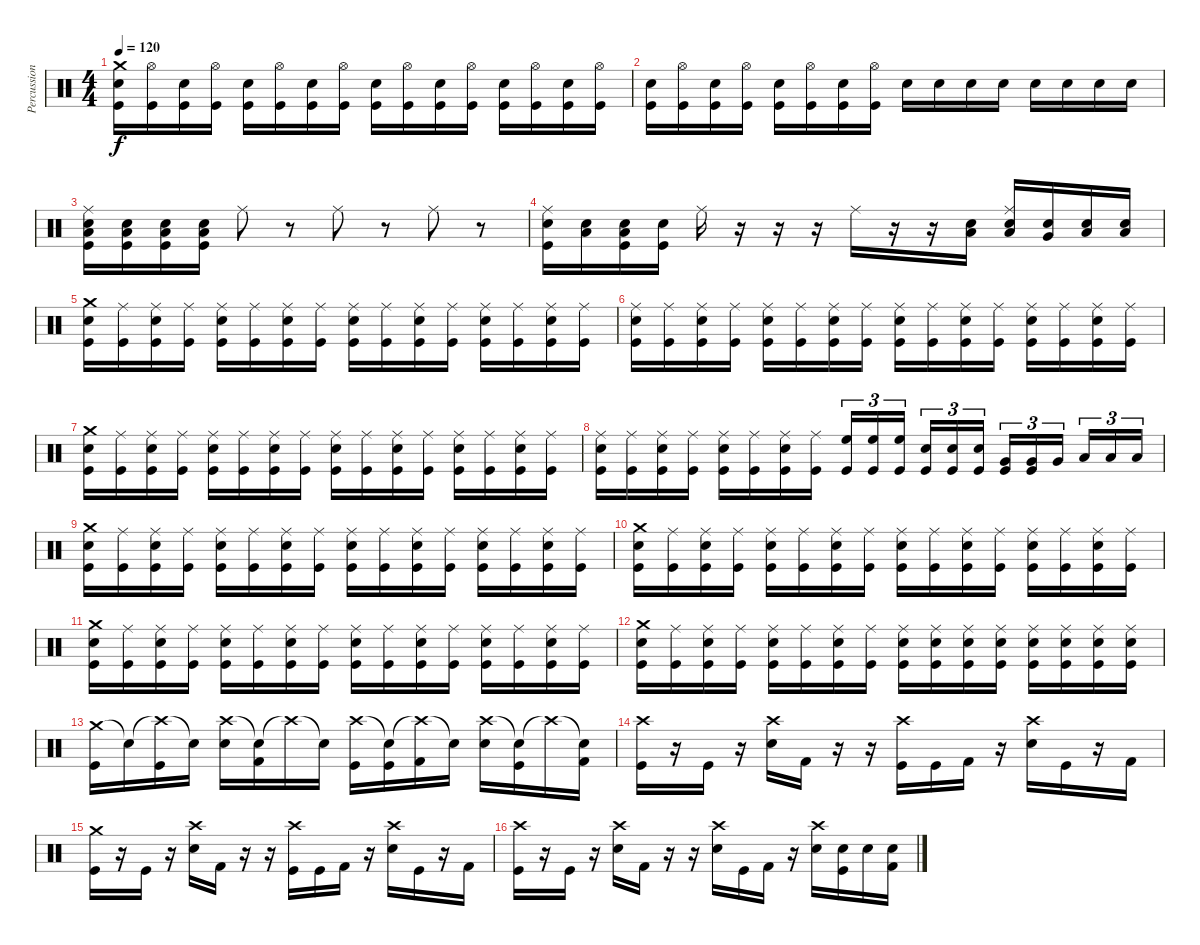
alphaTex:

\track ("Percussions" "Percussion") {instrument percussion}
\staff {score}
\articulation defaults
\ts (4 4)
\tempo 120
\clef neutral
\ks c
("Crash medium (hit)" "Electric Snare (hit)" "Kick (hit)").16{dy f} ("Hi-Hat (open)" "Kick (hit)").16 ("Electric Snare (hit)" "Kick (hit)").16 ("Hi-Hat (open)" "Kick (hit)").16 ("Electric Snare (hit)" "Kick (hit)").16 ("Hi-Hat (open)" "Kick (hit)").16 ("Electric Snare (hit)" "Kick (hit)").16 ("Hi-Hat (open)" "Kick (hit)").16 ("Electric Snare (hit)" "Kick (hit)").16 ("Hi-Hat (open)" "Kick (hit)").16 ("Electric Snare (hit)" "Kick (hit)").16 ("Hi-Hat (open)" "Kick (hit)").16 ("Electric Snare (hit)" "Kick (hit)").16 ("Hi-Hat (open)" "Kick (hit)").16 ("Electric Snare (hit)" "Kick (hit)").16 ("Hi-Hat (open)" "Kick (hit)").16 |
("Electric Snare (hit)" "Kick (hit)").16 ("Hi-Hat (open)" "Kick (hit)").16 ("Electric Snare (hit)" "Kick (hit)").16 ("Hi-Hat (open)" "Kick (hit)").16 ("Electric Snare (hit)" "Kick (hit)").16 ("Hi-Hat (open)" "Kick (hit)").16 ("Electric Snare (hit)" "Kick (hit)").16 ("Hi-Hat (open)" "Kick (hit)").16 "Electric Snare (hit)".16 "Electric Snare (hit)".16 "Electric Snare (hit)".16 "Electric Snare (hit)".16 "Electric Snare (hit)".16 "Electric Snare (hit)".16 "Electric Snare (hit)".16 "Electric Snare (hit)".16 |
("Ride (middle)" "Kick (hit)" "Low Floor Tom (hit)" "Electric Snare (hit)").16 ("Kick (hit)" "Low Floor Tom (hit)" "Electric Snare (hit)").16 ("Kick (hit)" "Low Floor Tom (hit)" "Electric Snare (hit)").16 ("Kick (hit)" "Low Floor Tom (hit)" "Electric Snare (hit)").16 "Ride (middle)".8 r.8 "Ride (middle)".8 r.8 "Ride (middle)".8 r.8 |
("Ride (middle)" "Kick (hit)" "Electric Snare (hit)").16 ("Low Floor Tom (hit)" "Electric Snare (hit)").16 ("Kick (hit)" "Low Floor Tom (hit)" "Electric Snare (hit)").16 ("Kick (hit)" "Electric Snare (hit)").16 "Ride (middle)".16 r.16 r.16 r.16 "Ride (middle)".16 r.16 r.16 ("Low Tom (hit)" "Electric Snare (hit)").16 ("Ride (middle)" "Low Tom (hit)" "Electric Snare (hit)").16 ("Very Low Tom (hit)" "Electric Snare (hit)").16 ("Low Floor Tom (hit)" "Electric Snare (hit)").16 ("Low Floor Tom (hit)" "Electric Snare (hit)").16 |
("Crash medium (hit)" "Electric Snare (hit)" "Kick (hit)").16 ("Ride (middle)" "Kick (hit)").16 ("Ride (middle)" "Electric Snare (hit)" "Kick (hit)").16 ("Ride (middle)" "Kick (hit)").16 ("Ride (middle)" "Electric Snare (hit)" "Kick (hit)").16 ("Ride (middle)" "Kick (hit)").16 ("Ride (middle)" "Electric Snare (hit)" "Kick (hit)").16 ("Ride (middle)" "Kick (hit)").16 ("Ride (middle)" "Electric Snare (hit)" "Kick (hit)").16 ("Ride (middle)" "Kick (hit)").16 ("Ride (middle)" "Electric Snare (hit)" "Kick (hit)").16 ("Ride (middle)" "Kick (hit)").16 ("Ride (middle)" "Electric Snare (hit)" "Kick (hit)").16 ("Ride (middle)" "Kick (hit)").16 ("Ride (middle)" "Electric Snare (hit)" "Kick (hit)").16 ("Ride (middle)" "Kick (hit)").16 |
("Ride (middle)" "Electric Snare (hit)" "Kick (hit)").16 ("Ride (middle)" "Kick (hit)").16 ("Ride (middle)" "Electric Snare (hit)" "Kick (hit)").16 ("Ride (middle)" "Kick (hit)").16 ("Ride (middle)" "Electric Snare (hit)" "Kick (hit)").16 ("Ride (middle)" "Kick (hit)").16 ("Ride (middle)" "Electric Snare (hit)" "Kick (hit)").16 ("Ride (middle)" "Kick (hit)").16 ("Ride (middle)" "Electric Snare (hit)" "Kick (hit)").16 ("Ride (middle)" "Kick (hit)").16 ("Ride (middle)" "Electric Snare (hit)" "Kick (hit)").16 ("Ride (middle)" "Kick (hit)").16 ("Ride (middle)" "Electric Snare (hit)" "Kick (hit)").16 ("Ride (middle)" "Kick (hit)").16 ("Ride (middle)" "Electric Snare (hit)" "Kick (hit)").16 ("Ride (middle)" "Kick (hit)").16 |
("Crash medium (hit)" "Electric Snare (hit)" "Kick (hit)").16 ("Ride (middle)" "Kick (hit)").16 ("Ride (middle)" "Electric Snare (hit)" "Kick (hit)").16 ("Ride (middle)" "Kick (hit)").16 ("Ride (middle)" "Electric Snare (hit)" "Kick (hit)").16 ("Ride (middle)" "Kick (hit)").16 ("Ride (middle)" "Electric Snare (hit)" "Kick (hit)").16 ("Ride (middle)" "Kick (hit)").16 ("Ride (middle)" "Electric Snare (hit)" "Kick (hit)").16 ("Ride (middle)" "Kick (hit)").16 ("Ride (middle)" "Electric Snare (hit)" "Kick (hit)").16 ("Ride (middle)" "Kick (hit)").16 ("Ride (middle)" "Electric Snare (hit)" "Kick (hit)").16 ("Ride (middle)" "Kick (hit)").16 ("Ride (middle)" "Electric Snare (hit)" "Kick (hit)").16 ("Ride (middle)" "Kick (hit)").16 |
("Ride (middle)" "Electric Snare (hit)" "Kick (hit)").16 ("Ride (middle)" "Kick (hit)").16 ("Ride (middle)" "Electric Snare (hit)" "Kick (hit)").16 ("Ride (middle)" "Kick (hit)").16 ("Ride (middle)" "Electric Snare (hit)" "Kick (hit)").16 ("Ride (middle)" "Kick (hit)").16 ("Ride (middle)" "Electric Snare (hit)" "Kick (hit)").16 ("Ride (middle)" "Kick (hit)").16 ("High Floor Tom (hit)" "Kick (hit)").16{tu (3 2)} ("High Floor Tom (hit)" "Kick (hit)").16{tu (3 2)} ("High Floor Tom (hit)" "Kick (hit)").16{tu (3 2)} ("Electric Snare (hit)" "Kick (hit)").16{tu (3 2)} ("Electric Snare (hit)" "Kick (hit)").16{tu (3 2)} ("Electric Snare (hit)" "Kick (hit)").16{tu (3 2)} ("Very Low Tom (hit)" "Kick (hit)").16{tu (3 2)} ("Very Low Tom (hit)" "Kick (hit)").16{tu (3 2)} "Very Low Tom (hit)".16{tu (3 2)} "Low Floor Tom (hit)".16{tu (3 2)} "Low Floor Tom (hit)".16{tu (3 2)} "Low Floor Tom (hit)".16{tu (3 2)} |
("Crash medium (hit)" "Electric Snare (hit)" "Kick (hit)").16 ("Ride (middle)" "Kick (hit)").16 ("Ride (middle)" "Electric Snare (hit)" "Kick (hit)").16 ("Ride (middle)" "Kick (hit)").16 ("Ride (middle)" "Electric Snare (hit)" "Kick (hit)").16 ("Ride (middle)" "Kick (hit)").16 ("Ride (middle)" "Electric Snare (hit)" "Kick (hit)").16 ("Ride (middle)" "Kick (hit)").16 ("Ride (middle)" "Electric Snare (hit)" "Kick (hit)").16 ("Ride (middle)" "Kick (hit)").16 ("Ride (middle)" "Electric Snare (hit)" "Kick (hit)").16 ("Ride (middle)" "Kick (hit)").16 ("Ride (middle)" "Electric Snare (hit)" "Kick (hit)").16 ("Ride (middle)" "Kick (hit)").16 ("Ride (middle)" "Electric Snare (hit)" "Kick (hit)").16 ("Ride (middle)" "Kick (hit)").16 |
("Crash medium (hit)" "Electric Snare (hit)" "Kick (hit)").16 ("Ride (middle)" "Kick (hit)").16 ("Ride (middle)" "Electric Snare (hit)" "Kick (hit)").16 ("Ride (middle)" "Kick (hit)").16 ("Ride (middle)" "Electric Snare (hit)" "Kick (hit)").16 ("Ride (middle)" "Kick (hit)").16 ("Ride (middle)" "Electric Snare (hit)" "Kick (hit)").16 ("Ride (middle)" "Kick (hit)").16 ("Ride (middle)" "Electric Snare (hit)" "Kick (hit)").16 ("Ride (middle)" "Kick (hit)").16 ("Ride (middle)" "Electric Snare (hit)" "Kick (hit)").16 ("Ride (middle)" "Kick (hit)").16 ("Ride (middle)" "Electric Snare (hit)" "Kick (hit)").16 ("Ride (middle)" "Kick (hit)").16 ("Ride (middle)" "Electric Snare (hit)" "Kick (hit)").16 ("Ride (middle)" "Kick (hit)").16 |
("Crash medium (hit)" "Electric Snare (hit)" "Kick (hit)").16 ("Ride (middle)" "Kick (hit)").16 ("Ride (middle)" "Electric Snare (hit)" "Kick (hit)").16 ("Ride (middle)" "Kick (hit)").16 ("Ride (middle)" "Electric Snare (hit)" "Kick (hit)").16 ("Ride (middle)" "Kick (hit)").16 ("Ride (middle)" "Electric Snare (hit)" "Kick (hit)").16 ("Ride (middle)" "Kick (hit)").16 ("Ride (middle)" "Electric Snare (hit)" "Kick (hit)").16 ("Ride (middle)" "Kick (hit)").16 ("Ride (middle)" "Electric Snare (hit)" "Kick (hit)").16 ("Ride (middle)" "Kick (hit)").16 ("Ride (middle)" "Electric Snare (hit)" "Kick (hit)").16 ("Ride (middle)" "Kick (hit)").16 ("Ride (middle)" "Electric Snare (hit)" "Kick (hit)").16 ("Ride (middle)" "Kick (hit)").16 |
("Crash medium (hit)" "Electric Snare (hit)" "Kick (hit)").16 ("Ride (middle)" "Kick (hit)").16 ("Ride (middle)" "Electric Snare (hit)" "Kick (hit)").16 ("Ride (middle)" "Kick (hit)").16 ("Ride (middle)" "Electric Snare (hit)" "Kick (hit)").16 ("Ride (middle)" "Kick (hit)").16 ("Ride (middle)" "Electric Snare (hit)" "Kick (hit)").16 ("Ride (middle)" "Kick (hit)").16 ("Ride (middle)" "Electric Snare (hit)" "Kick (hit)").16 ("Ride (middle)" "Electric Snare (hit)" "Kick (hit)").16 ("Ride (middle)" "Electric Snare (hit)" "Kick (hit)").16 ("Ride (middle)" "Electric Snare (hit)" "Kick (hit)").16 ("Ride (middle)" "Electric Snare (hit)" "Kick (hit)").16 ("Ride (middle)" "Electric Snare (hit)" "Kick (hit)").16 ("Ride (middle)" "Electric Snare (hit)" "Kick (hit)").16 ("Ride (middle)" "Electric Snare (hit)" "Kick (hit)").16 |
("Crash medium (hit)" "Kick (hit)").16 "Snare (hit)"{t}.16 ("Crash high (hit)"{t} "Kick (hit)").16 "Snare (hit)"{t}.16 ("Crash high (hit)" "Electric Snare (hit)").16 ("Snare (hit)"{t} "Kick (hit) 2").16 "Crash high (hit)"{t}.16 "Snare (hit)"{t}.16 ("Crash high (hit)" "Kick (hit)").16 ("Snare (hit)"{t} "Kick (hit)").16 ("Crash high (hit)"{t} "Kick (hit) 2").16 "Snare (hit)"{t}.16 ("Crash high (hit)" "Electric Snare (hit)").16 ("Snare (hit)"{t} "Kick (hit)").16 "Crash high (hit)"{t}.16 ("Snare (hit)"{t} "Kick (hit) 2").16 |
("Crash high (hit)" "Kick (hit)").16 r.16 "Kick (hit)".16 r.16 ("Crash high (hit)" "Electric Snare (hit)").16 "Kick (hit) 2".16 r.16 r.16 ("Crash high (hit)" "Kick (hit)").16 "Kick (hit)".16 "Kick (hit) 2".16 r.16 ("Crash high (hit)" "Electric Snare (hit)").16 "Kick (hit)".16 r.16 "Kick (hit) 2".16 |
("Crash medium (hit)" "Kick (hit)").16 r.16 "Kick (hit)".16 r.16 ("Crash high (hit)" "Electric Snare (hit)").16 "Kick (hit) 2".16 r.16 r.16 ("Crash high (hit)" "Kick (hit)").16 "Kick (hit)".16 "Kick (hit) 2".16 r.16 ("Crash high (hit)" "Electric Snare (hit)").16 "Kick (hit)".16 r.16 "Kick (hit) 2".16 |
("Crash high (hit)" "Kick (hit)").16 r.16 "Kick (hit)".16 r.16 ("Crash high (hit)" "Electric Snare (hit)").16 "Kick (hit) 2".16 r.16 r.16 ("Crash high (hit)" "Electric Snare (hit)").16 "Kick (hit)".16 "Kick (hit) 2".16 r.16 ("Crash high (hit)" "Electric Snare (hit)").16 ("Electric Snare (hit)" "Kick (hit)").16 "Electric Snare (hit)".16 ("Electric Snare (hit)" "Kick (hit) 2").16
